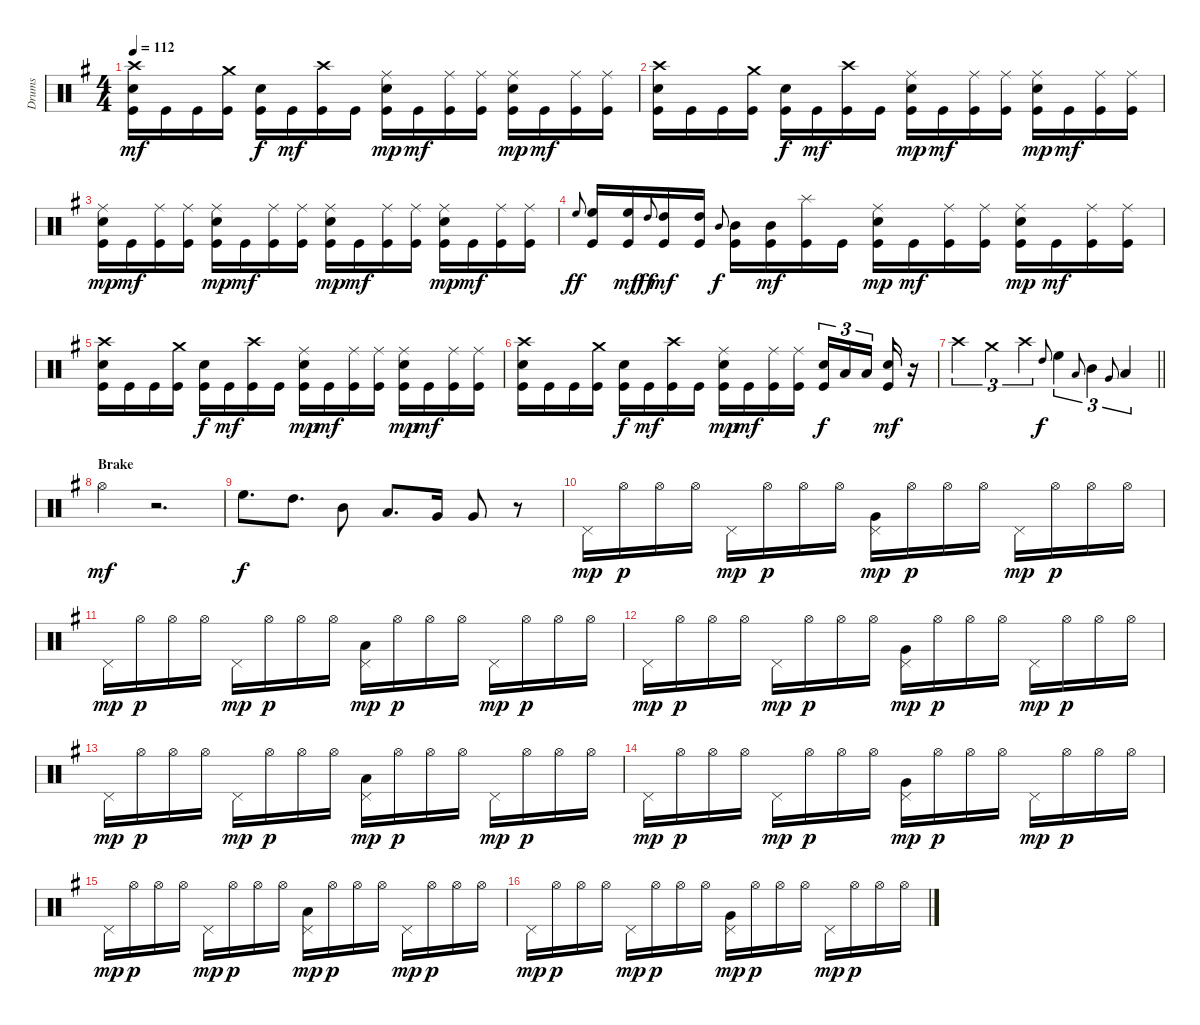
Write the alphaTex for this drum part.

\track ("Drums" "Drums") {instrument percussion}
\staff {score}
\articulation defaults
\ts (4 4)
\tempo 112
\clef neutral
\ks g
("Crash high (hit)" "Snare (hit) 2" "Kick (hit)").16{dy mf} "Kick (hit)".16 "Kick (hit)".16 ("Crash medium (hit)" "Kick (hit)").16 ("Snare (hit) 2" "Kick (hit)").16{dy f} "Kick (hit)".16{dy mf} ("Crash high (hit)" "Kick (hit)").16 "Kick (hit)".16 ("Ride (middle)" "Snare (hit) 2" "Kick (hit)").16{dy mp} "Kick (hit)".16{dy mf} ("Ride (middle)" "Kick (hit)").16 ("Ride (middle)" "Kick (hit)").16 ("Ride (middle)" "Snare (hit) 2" "Kick (hit)").16{dy mp} "Kick (hit)".16{dy mf} ("Ride (middle)" "Kick (hit)").16 ("Ride (middle)" "Kick (hit)").16 |
("Crash high (hit)" "Snare (hit) 2" "Kick (hit)").16 "Kick (hit)".16 "Kick (hit)".16 ("Crash medium (hit)" "Kick (hit)").16 ("Snare (hit) 2" "Kick (hit)").16{dy f} "Kick (hit)".16{dy mf} ("Crash high (hit)" "Kick (hit)").16 "Kick (hit)".16 ("Ride (middle)" "Snare (hit) 2" "Kick (hit)").16{dy mp} "Kick (hit)".16{dy mf} ("Ride (middle)" "Kick (hit)").16 ("Ride (middle)" "Kick (hit)").16 ("Ride (middle)" "Snare (hit) 2" "Kick (hit)").16{dy mp} "Kick (hit)".16{dy mf} ("Ride (middle)" "Kick (hit)").16 ("Ride (middle)" "Kick (hit)").16 |
("Ride (middle)" "Snare (hit) 2" "Kick (hit)").16{dy mp} "Kick (hit)".16{dy mf} ("Ride (middle)" "Kick (hit)").16 ("Ride (middle)" "Kick (hit)").16 ("Ride (middle)" "Snare (hit) 2" "Kick (hit)").16{dy mp} "Kick (hit)".16{dy mf} ("Ride (middle)" "Kick (hit)").16 ("Ride (middle)" "Kick (hit)").16 ("Ride (middle)" "Snare (hit) 2" "Kick (hit)").16{dy mp} "Kick (hit)".16{dy mf} ("Ride (middle)" "Kick (hit)").16 ("Ride (middle)" "Kick (hit)").16 ("Ride (middle)" "Snare (hit) 2" "Kick (hit)").16{dy mp} "Kick (hit)".16{dy mf} ("Ride (middle)" "Kick (hit)").16 ("Ride (middle)" "Kick (hit)").16 |
"High Floor Tom (hit)".8{gr onbeat dy ff} ("High Floor Tom (hit)" "Kick (hit)").16 ("High Floor Tom (hit)" "Kick (hit)").16{dy mf} "High Tom (hit)".8{gr onbeat dy ff} ("High Tom (hit)" "Kick (hit)").16{dy mf} ("High Tom (hit)" "Kick (hit)").16 "Mid Tom (hit)".8{gr onbeat dy f} ("Mid Tom (hit)" "Kick (hit)").16 ("Mid Tom (hit)" "Kick (hit)").16{dy mf} ("Splash (hit)" "Kick (hit)").16 "Kick (hit)".16 ("Ride (middle)" "Snare (hit) 2" "Kick (hit)").16{dy mp} "Kick (hit)".16{dy mf} ("Ride (middle)" "Kick (hit)").16 ("Ride (middle)" "Kick (hit)").16 ("Ride (middle)" "Snare (hit) 2" "Kick (hit)").16{dy mp} "Kick (hit)".16{dy mf} ("Ride (middle)" "Kick (hit)").16 ("Ride (middle)" "Kick (hit)").16 |
("Crash high (hit)" "Snare (hit) 2" "Kick (hit)").16 "Kick (hit)".16 "Kick (hit)".16 ("Crash medium (hit)" "Kick (hit)").16 ("Snare (hit) 2" "Kick (hit)").16{dy f} "Kick (hit)".16{dy mf} ("Crash high (hit)" "Kick (hit)").16 "Kick (hit)".16 ("Ride (middle)" "Snare (hit) 2" "Kick (hit)").16{dy mp} "Kick (hit)".16{dy mf} ("Ride (middle)" "Kick (hit)").16 ("Ride (middle)" "Kick (hit)").16 ("Ride (middle)" "Snare (hit) 2" "Kick (hit)").16{dy mp} "Kick (hit)".16{dy mf} ("Ride (middle)" "Kick (hit)").16 ("Ride (middle)" "Kick (hit)").16 |
("Crash high (hit)" "Snare (hit) 2" "Kick (hit)").16 "Kick (hit)".16 "Kick (hit)".16 ("Crash medium (hit)" "Kick (hit)").16 ("Snare (hit) 2" "Kick (hit)").16{dy f} "Kick (hit)".16{dy mf} ("Crash high (hit)" "Kick (hit)").16 "Kick (hit)".16 ("Ride (middle)" "Snare (hit) 2" "Kick (hit)").16{dy mp} "Kick (hit)".16{dy mf} ("Ride (middle)" "Kick (hit)").16 ("Ride (middle)" "Kick (hit)").16 ("Snare (hit) 2" "Kick (hit)").16{tu (3 2) dy f} "Low Tom (hit)".16{tu (3 2)} "Low Floor Tom (hit)".16{tu (3 2) beam splitsecondary} ("Electric Snare (hit)" "Kick (hit)").16{dy mf} r.16 |
\barLineRight lightlight "Crash high (hit)".4{tu (3 2)} "Crash medium (hit)".4{tu (3 2)} "Crash high (hit)".4{tu (3 2)} "High Tom (hit)".8{gr onbeat dy f} "High Floor Tom (hit)".4{tu (3 2)} "Low Tom (hit)".8{gr onbeat} "Mid Tom (hit)".4{tu (3 2)} "Very Low Tom (hit)".8{gr onbeat} "Low Tom (hit)".4{tu (3 2)}
|
\section ("" "Brake")
"Hi-Hat (open)".4{dy mf} r.2{d} |
"High Floor Tom (hit)".8{d dy f} "High Tom (hit)".8{d} "Mid Tom (hit)".8 "Low Tom (hit)".8{d} "Very Low Tom (hit)".16 "Very Low Tom (hit)".8 r.8 |
"Pedal Hi-Hat (hit)".16{dy mp} "Hi-Hat (open)".16{dy p} "Hi-Hat (open)".16 "Hi-Hat (open)".16 "Pedal Hi-Hat (hit)".16{dy mp} "Hi-Hat (open)".16{dy p} "Hi-Hat (open)".16 "Hi-Hat (open)".16 ("Pedal Hi-Hat (hit)" "Very Low Tom (hit)").16{dy mp} "Hi-Hat (open)".16{dy p} "Hi-Hat (open)".16 "Hi-Hat (open)".16 "Pedal Hi-Hat (hit)".16{dy mp} "Hi-Hat (open)".16{dy p} "Hi-Hat (open)".16 "Hi-Hat (open)".16 |
"Pedal Hi-Hat (hit)".16{dy mp} "Hi-Hat (open)".16{dy p} "Hi-Hat (open)".16 "Hi-Hat (open)".16 "Pedal Hi-Hat (hit)".16{dy mp} "Hi-Hat (open)".16{dy p} "Hi-Hat (open)".16 "Hi-Hat (open)".16 ("Pedal Hi-Hat (hit)" "Low Floor Tom (hit)").16{dy mp} "Hi-Hat (open)".16{dy p} "Hi-Hat (open)".16 "Hi-Hat (open)".16 "Pedal Hi-Hat (hit)".16{dy mp} "Hi-Hat (open)".16{dy p} "Hi-Hat (open)".16 "Hi-Hat (open)".16 |
"Pedal Hi-Hat (hit)".16{dy mp} "Hi-Hat (open)".16{dy p} "Hi-Hat (open)".16 "Hi-Hat (open)".16 "Pedal Hi-Hat (hit)".16{dy mp} "Hi-Hat (open)".16{dy p} "Hi-Hat (open)".16 "Hi-Hat (open)".16 ("Pedal Hi-Hat (hit)" "Very Low Tom (hit)").16{dy mp} "Hi-Hat (open)".16{dy p} "Hi-Hat (open)".16 "Hi-Hat (open)".16 "Pedal Hi-Hat (hit)".16{dy mp} "Hi-Hat (open)".16{dy p} "Hi-Hat (open)".16 "Hi-Hat (open)".16 |
"Pedal Hi-Hat (hit)".16{dy mp} "Hi-Hat (open)".16{dy p} "Hi-Hat (open)".16 "Hi-Hat (open)".16 "Pedal Hi-Hat (hit)".16{dy mp} "Hi-Hat (open)".16{dy p} "Hi-Hat (open)".16 "Hi-Hat (open)".16 ("Pedal Hi-Hat (hit)" "Low Floor Tom (hit)").16{dy mp} "Hi-Hat (open)".16{dy p} "Hi-Hat (open)".16 "Hi-Hat (open)".16 "Pedal Hi-Hat (hit)".16{dy mp} "Hi-Hat (open)".16{dy p} "Hi-Hat (open)".16 "Hi-Hat (open)".16 |
"Pedal Hi-Hat (hit)".16{dy mp} "Hi-Hat (open)".16{dy p} "Hi-Hat (open)".16 "Hi-Hat (open)".16 "Pedal Hi-Hat (hit)".16{dy mp} "Hi-Hat (open)".16{dy p} "Hi-Hat (open)".16 "Hi-Hat (open)".16 ("Pedal Hi-Hat (hit)" "Very Low Tom (hit)").16{dy mp} "Hi-Hat (open)".16{dy p} "Hi-Hat (open)".16 "Hi-Hat (open)".16 "Pedal Hi-Hat (hit)".16{dy mp} "Hi-Hat (open)".16{dy p} "Hi-Hat (open)".16 "Hi-Hat (open)".16 |
"Pedal Hi-Hat (hit)".16{dy mp} "Hi-Hat (open)".16{dy p} "Hi-Hat (open)".16 "Hi-Hat (open)".16 "Pedal Hi-Hat (hit)".16{dy mp} "Hi-Hat (open)".16{dy p} "Hi-Hat (open)".16 "Hi-Hat (open)".16 ("Pedal Hi-Hat (hit)" "Low Floor Tom (hit)").16{dy mp} "Hi-Hat (open)".16{dy p} "Hi-Hat (open)".16 "Hi-Hat (open)".16 "Pedal Hi-Hat (hit)".16{dy mp} "Hi-Hat (open)".16{dy p} "Hi-Hat (open)".16 "Hi-Hat (open)".16 |
"Pedal Hi-Hat (hit)".16{dy mp} "Hi-Hat (open)".16{dy p} "Hi-Hat (open)".16 "Hi-Hat (open)".16 "Pedal Hi-Hat (hit)".16{dy mp} "Hi-Hat (open)".16{dy p} "Hi-Hat (open)".16 "Hi-Hat (open)".16 ("Pedal Hi-Hat (hit)" "Very Low Tom (hit)").16{dy mp} "Hi-Hat (open)".16{dy p} "Hi-Hat (open)".16 "Hi-Hat (open)".16 "Pedal Hi-Hat (hit)".16{dy mp} "Hi-Hat (open)".16{dy p} "Hi-Hat (open)".16 "Hi-Hat (open)".16
